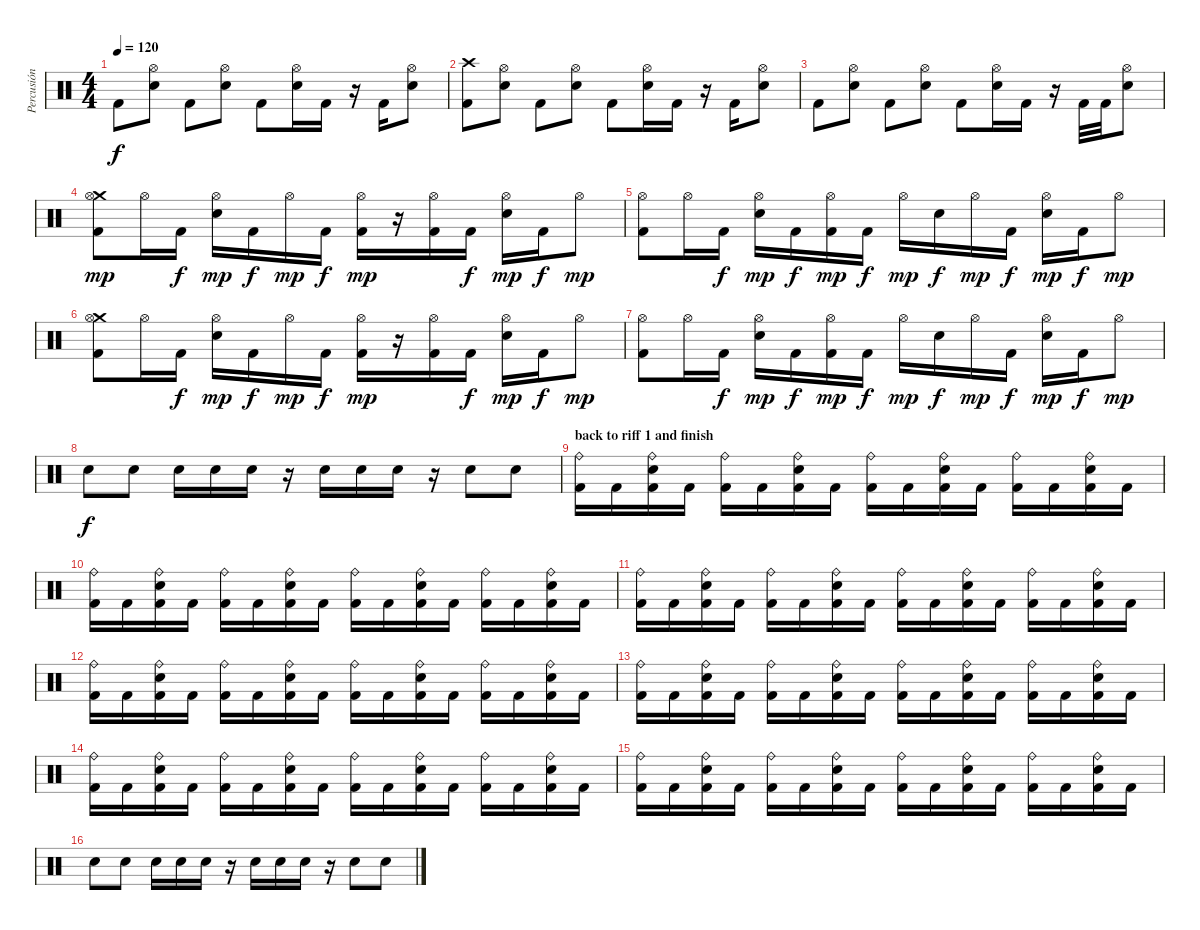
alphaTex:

\track ("Percusión" "Percusión") {instrument percussion}
\staff {score}
\articulation defaults
\ts (4 4)
\tempo 120
\clef neutral
\ks c "Kick (hit) 2".8{dy f}
("Hi-Hat (open)" "Electric Snare (hit)").8 "Kick (hit) 2".8 ("Hi-Hat (open)" "Electric Snare (hit)").8 "Kick (hit) 2".8 ("Hi-Hat (open)" "Electric Snare (hit)").16 "Kick (hit) 2".16 r.16 "Kick (hit) 2".16 ("Hi-Hat (open)" "Electric Snare (hit)").8 |
("Crash high (hit)" "Kick (hit) 2").8 ("Hi-Hat (open)" "Electric Snare (hit)").8 "Kick (hit) 2".8 ("Hi-Hat (open)" "Electric Snare (hit)").8 "Kick (hit) 2".8 ("Hi-Hat (open)" "Electric Snare (hit)").16 "Kick (hit) 2".16 r.16 "Kick (hit) 2".16 ("Hi-Hat (open)" "Electric Snare (hit)").8 |
"Kick (hit) 2".8 ("Hi-Hat (open)" "Electric Snare (hit)").8 "Kick (hit) 2".8 ("Hi-Hat (open)" "Electric Snare (hit)").8 "Kick (hit) 2".8 ("Hi-Hat (open)" "Electric Snare (hit)").16 "Kick (hit) 2".16 r.16 "Kick (hit) 2".32 "Kick (hit) 2".32 ("Hi-Hat (open)" "Electric Snare (hit)").8 |
("Crash medium (hit)" "Hi-Hat (open)" "Kick (hit) 2").8{dy mp} "Hi-Hat (open)".16 "Kick (hit) 2".16{dy f} ("Hi-Hat (open)" "Electric Snare (hit)").16{dy mp} "Kick (hit) 2".16{dy f} "Hi-Hat (open)".16{dy mp} "Kick (hit) 2".16{dy f} ("Hi-Hat (open)" "Kick (hit) 2").16{dy mp} r.16 ("Hi-Hat (open)" "Kick (hit) 2").16 "Kick (hit) 2".16{dy f} ("Hi-Hat (open)" "Electric Snare (hit)").16{dy mp} "Kick (hit) 2".16{dy f} "Hi-Hat (open)".8{dy mp} |
("Hi-Hat (open)" "Kick (hit) 2").8 "Hi-Hat (open)".16 "Kick (hit) 2".16{dy f} ("Hi-Hat (open)" "Electric Snare (hit)").16{dy mp} "Kick (hit) 2".16{dy f} ("Hi-Hat (open)" "Kick (hit) 2").16{dy mp} "Kick (hit) 2".16{dy f} "Hi-Hat (open)".16{dy mp} "Electric Snare (hit)".16{dy f} "Hi-Hat (open)".16{dy mp} "Kick (hit) 2".16{dy f} ("Hi-Hat (open)" "Electric Snare (hit)").16{dy mp} "Kick (hit) 2".16{dy f} "Hi-Hat (open)".8{dy mp} |
("Crash medium (hit)" "Hi-Hat (open)" "Kick (hit) 2").8 "Hi-Hat (open)".16 "Kick (hit) 2".16{dy f} ("Hi-Hat (open)" "Electric Snare (hit)").16{dy mp} "Kick (hit) 2".16{dy f} "Hi-Hat (open)".16{dy mp} "Kick (hit) 2".16{dy f} ("Hi-Hat (open)" "Kick (hit) 2").16{dy mp} r.16 ("Hi-Hat (open)" "Kick (hit) 2").16 "Kick (hit) 2".16{dy f} ("Hi-Hat (open)" "Electric Snare (hit)").16{dy mp} "Kick (hit) 2".16{dy f} "Hi-Hat (open)".8{dy mp} |
("Hi-Hat (open)" "Kick (hit) 2").8 "Hi-Hat (open)".16 "Kick (hit) 2".16{dy f} ("Hi-Hat (open)" "Electric Snare (hit)").16{dy mp} "Kick (hit) 2".16{dy f} ("Hi-Hat (open)" "Kick (hit) 2").16{dy mp} "Kick (hit) 2".16{dy f} "Hi-Hat (open)".16{dy mp} "Electric Snare (hit)".16{dy f} "Hi-Hat (open)".16{dy mp} "Kick (hit) 2".16{dy f} ("Hi-Hat (open)" "Electric Snare (hit)").16{dy mp} "Kick (hit) 2".16{dy f} "Hi-Hat (open)".8{dy mp} |
"Electric Snare (hit)".8{dy f} "Electric Snare (hit)".8 "Electric Snare (hit)".16 "Electric Snare (hit)".16 "Electric Snare (hit)".16 r.16 "Electric Snare (hit)".16 "Electric Snare (hit)".16 "Electric Snare (hit)".16 r.16 "Electric Snare (hit)".8 "Electric Snare (hit)".8 |
\section ("" "back to riff 1 and finish")
("Ride (bell)" "Kick (hit) 2").16 "Kick (hit) 2".16 ("Ride (bell)" "Electric Snare (hit)" "Kick (hit) 2").16 "Kick (hit) 2".16 ("Ride (bell)" "Kick (hit) 2").16 "Kick (hit) 2".16 ("Ride (bell)" "Electric Snare (hit)" "Kick (hit) 2").16 "Kick (hit) 2".16 ("Ride (bell)" "Kick (hit) 2").16 "Kick (hit) 2".16 ("Ride (bell)" "Electric Snare (hit)" "Kick (hit) 2").16 "Kick (hit) 2".16 ("Ride (bell)" "Kick (hit) 2").16 "Kick (hit) 2".16 ("Ride (bell)" "Electric Snare (hit)" "Kick (hit) 2").16 "Kick (hit) 2".16 |
("Ride (bell)" "Kick (hit) 2").16 "Kick (hit) 2".16 ("Ride (bell)" "Electric Snare (hit)" "Kick (hit) 2").16 "Kick (hit) 2".16 ("Ride (bell)" "Kick (hit) 2").16 "Kick (hit) 2".16 ("Ride (bell)" "Electric Snare (hit)" "Kick (hit) 2").16 "Kick (hit) 2".16 ("Ride (bell)" "Kick (hit) 2").16 "Kick (hit) 2".16 ("Ride (bell)" "Electric Snare (hit)" "Kick (hit) 2").16 "Kick (hit) 2".16 ("Ride (bell)" "Kick (hit) 2").16 "Kick (hit) 2".16 ("Ride (bell)" "Electric Snare (hit)" "Kick (hit) 2").16 "Kick (hit) 2".16 |
("Ride (bell)" "Kick (hit) 2").16 "Kick (hit) 2".16 ("Ride (bell)" "Electric Snare (hit)" "Kick (hit) 2").16 "Kick (hit) 2".16 ("Ride (bell)" "Kick (hit) 2").16 "Kick (hit) 2".16 ("Ride (bell)" "Electric Snare (hit)" "Kick (hit) 2").16 "Kick (hit) 2".16 ("Ride (bell)" "Kick (hit) 2").16 "Kick (hit) 2".16 ("Ride (bell)" "Electric Snare (hit)" "Kick (hit) 2").16 "Kick (hit) 2".16 ("Ride (bell)" "Kick (hit) 2").16 "Kick (hit) 2".16 ("Ride (bell)" "Electric Snare (hit)" "Kick (hit) 2").16 "Kick (hit) 2".16 |
("Ride (bell)" "Kick (hit) 2").16 "Kick (hit) 2".16 ("Ride (bell)" "Electric Snare (hit)" "Kick (hit) 2").16 "Kick (hit) 2".16 ("Ride (bell)" "Kick (hit) 2").16 "Kick (hit) 2".16 ("Ride (bell)" "Electric Snare (hit)" "Kick (hit) 2").16 "Kick (hit) 2".16 ("Ride (bell)" "Kick (hit) 2").16 "Kick (hit) 2".16 ("Ride (bell)" "Electric Snare (hit)" "Kick (hit) 2").16 "Kick (hit) 2".16 ("Ride (bell)" "Kick (hit) 2").16 "Kick (hit) 2".16 ("Ride (bell)" "Electric Snare (hit)" "Kick (hit) 2").16 "Kick (hit) 2".16 |
("Ride (bell)" "Kick (hit) 2").16 "Kick (hit) 2".16 ("Ride (bell)" "Electric Snare (hit)" "Kick (hit) 2").16 "Kick (hit) 2".16 ("Ride (bell)" "Kick (hit) 2").16 "Kick (hit) 2".16 ("Ride (bell)" "Electric Snare (hit)" "Kick (hit) 2").16 "Kick (hit) 2".16 ("Ride (bell)" "Kick (hit) 2").16 "Kick (hit) 2".16 ("Ride (bell)" "Electric Snare (hit)" "Kick (hit) 2").16 "Kick (hit) 2".16 ("Ride (bell)" "Kick (hit) 2").16 "Kick (hit) 2".16 ("Ride (bell)" "Electric Snare (hit)" "Kick (hit) 2").16 "Kick (hit) 2".16 |
("Ride (bell)" "Kick (hit) 2").16 "Kick (hit) 2".16 ("Ride (bell)" "Electric Snare (hit)" "Kick (hit) 2").16 "Kick (hit) 2".16 ("Ride (bell)" "Kick (hit) 2").16 "Kick (hit) 2".16 ("Ride (bell)" "Electric Snare (hit)" "Kick (hit) 2").16 "Kick (hit) 2".16 ("Ride (bell)" "Kick (hit) 2").16 "Kick (hit) 2".16 ("Ride (bell)" "Electric Snare (hit)" "Kick (hit) 2").16 "Kick (hit) 2".16 ("Ride (bell)" "Kick (hit) 2").16 "Kick (hit) 2".16 ("Ride (bell)" "Electric Snare (hit)" "Kick (hit) 2").16 "Kick (hit) 2".16 |
("Ride (bell)" "Kick (hit) 2").16 "Kick (hit) 2".16 ("Ride (bell)" "Electric Snare (hit)" "Kick (hit) 2").16 "Kick (hit) 2".16 ("Ride (bell)" "Kick (hit) 2").16 "Kick (hit) 2".16 ("Ride (bell)" "Electric Snare (hit)" "Kick (hit) 2").16 "Kick (hit) 2".16 ("Ride (bell)" "Kick (hit) 2").16 "Kick (hit) 2".16 ("Ride (bell)" "Electric Snare (hit)" "Kick (hit) 2").16 "Kick (hit) 2".16 ("Ride (bell)" "Kick (hit) 2").16 "Kick (hit) 2".16 ("Ride (bell)" "Electric Snare (hit)" "Kick (hit) 2").16 "Kick (hit) 2".16 |
"Electric Snare (hit)".8 "Electric Snare (hit)".8 "Electric Snare (hit)".16 "Electric Snare (hit)".16 "Electric Snare (hit)".16 r.16 "Electric Snare (hit)".16 "Electric Snare (hit)".16 "Electric Snare (hit)".16 r.16 "Electric Snare (hit)".8 "Electric Snare (hit)".8
